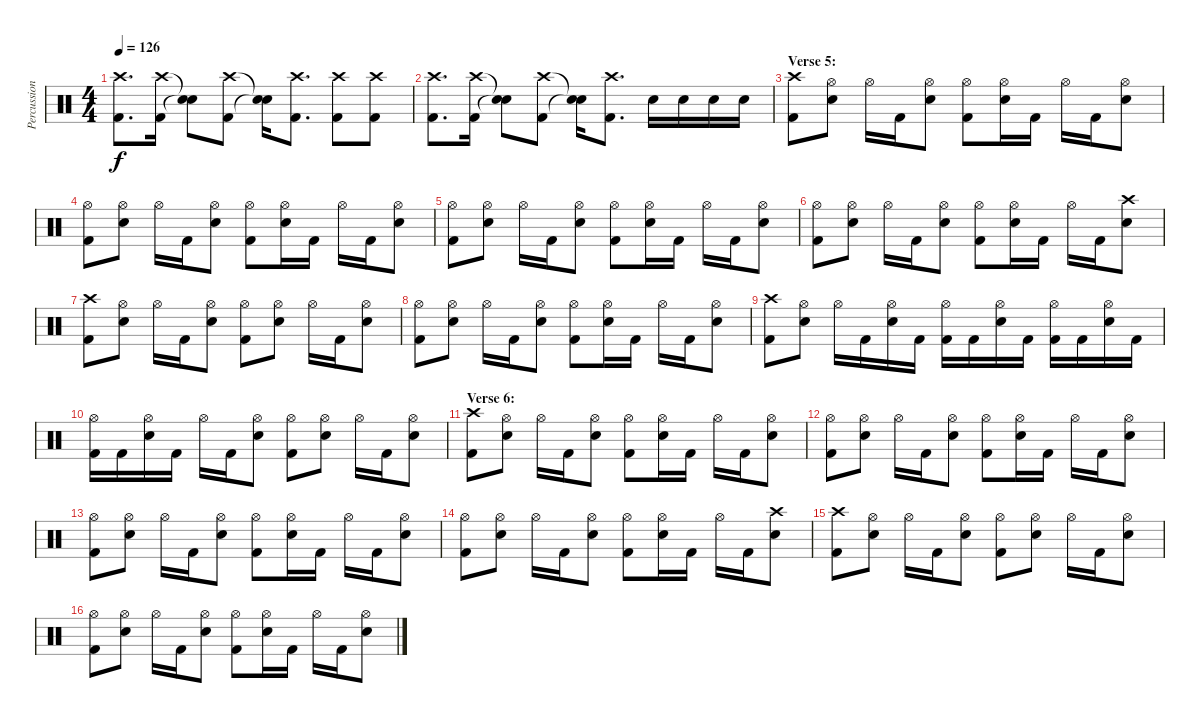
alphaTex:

\track ("Percussion" "Percussion") {instrument percussion}
\staff {score}
\articulation defaults
\ts (4 4)
\tempo 126
\clef neutral
\ks c
("Crash high (hit)" "Kick (hit) 2").8{d dy f} ("Crash high (hit)" "Kick (hit) 2").16 ("Snare (hit)"{t} "Snare (hit)"{t}).8 ("Crash high (hit)" "Kick (hit) 2").8 ("Snare (hit)"{t} "Snare (hit)"{t}).16 ("Crash high (hit)" "Kick (hit) 2").8{d} ("Crash high (hit)" "Kick (hit) 2").8 ("Crash high (hit)" "Kick (hit) 2").8 |
("Crash high (hit)" "Kick (hit) 2").8{d} ("Crash high (hit)" "Kick (hit) 2").16 ("Snare (hit)"{t} "Snare (hit)"{t}).8 ("Crash high (hit)" "Kick (hit) 2").8 ("Snare (hit)"{t} "Snare (hit)"{t}).16 ("Crash high (hit)" "Kick (hit) 2").8{d} "Snare (hit) 2".16 "Snare (hit) 2".16 "Snare (hit) 2".16 "Snare (hit) 2".16 |
\section ("" "Verse 5:")
("Crash high (hit)" "Kick (hit) 2").8 ("Hi-Hat (open)" "Snare (hit) 2").8 "Hi-Hat (open)".16 "Kick (hit) 2".16 ("Hi-Hat (open)" "Snare (hit) 2").8 ("Hi-Hat (open)" "Kick (hit) 2").8 ("Hi-Hat (open)" "Snare (hit) 2").16 "Kick (hit) 2".16 "Hi-Hat (open)".16 "Kick (hit) 2".16 ("Hi-Hat (open)" "Snare (hit) 2").8 |
("Hi-Hat (open)" "Kick (hit) 2").8 ("Hi-Hat (open)" "Snare (hit) 2").8 "Hi-Hat (open)".16 "Kick (hit) 2".16 ("Hi-Hat (open)" "Snare (hit) 2").8 ("Hi-Hat (open)" "Kick (hit) 2").8 ("Hi-Hat (open)" "Snare (hit) 2").16 "Kick (hit) 2".16 "Hi-Hat (open)".16 "Kick (hit) 2".16 ("Hi-Hat (open)" "Snare (hit) 2").8 |
("Hi-Hat (open)" "Kick (hit) 2").8 ("Hi-Hat (open)" "Snare (hit) 2").8 "Hi-Hat (open)".16 "Kick (hit) 2".16 ("Hi-Hat (open)" "Snare (hit) 2").8 ("Hi-Hat (open)" "Kick (hit) 2").8 ("Hi-Hat (open)" "Snare (hit) 2").16 "Kick (hit) 2".16 "Hi-Hat (open)".16 "Kick (hit) 2".16 ("Hi-Hat (open)" "Snare (hit) 2").8 |
("Hi-Hat (open)" "Kick (hit) 2").8 ("Hi-Hat (open)" "Snare (hit) 2").8 "Hi-Hat (open)".16 "Kick (hit) 2".16 ("Hi-Hat (open)" "Snare (hit) 2").8 ("Hi-Hat (open)" "Kick (hit) 2").8 ("Hi-Hat (open)" "Snare (hit) 2").16 "Kick (hit) 2".16 "Hi-Hat (open)".16 "Kick (hit) 2".16 ("Crash high (hit)" "Snare (hit) 2").8 |
("Crash high (hit)" "Kick (hit) 2").8 ("Hi-Hat (open)" "Snare (hit) 2").8 "Hi-Hat (open)".16 "Kick (hit) 2".16 ("Hi-Hat (open)" "Snare (hit) 2").8 ("Hi-Hat (open)" "Kick (hit) 2").8 ("Hi-Hat (open)" "Snare (hit) 2").8 "Hi-Hat (open)".16 "Kick (hit) 2".16 ("Hi-Hat (open)" "Snare (hit) 2").8 |
("Hi-Hat (open)" "Kick (hit) 2").8 ("Hi-Hat (open)" "Snare (hit) 2").8 "Hi-Hat (open)".16 "Kick (hit) 2".16 ("Hi-Hat (open)" "Snare (hit) 2").8 ("Hi-Hat (open)" "Kick (hit) 2").8 ("Hi-Hat (open)" "Snare (hit) 2").16 "Kick (hit) 2".16 "Hi-Hat (open)".16 "Kick (hit) 2".16 ("Hi-Hat (open)" "Snare (hit) 2").8 |
("Crash high (hit)" "Kick (hit) 2").8 ("Hi-Hat (open)" "Snare (hit) 2").8 "Hi-Hat (open)".16 "Kick (hit) 2".16 ("Hi-Hat (open)" "Snare (hit) 2").16 "Kick (hit) 2".16 ("Hi-Hat (open)" "Kick (hit) 2").16 "Kick (hit) 2".16 ("Hi-Hat (open)" "Snare (hit) 2").16 "Kick (hit) 2".16 ("Hi-Hat (open)" "Kick (hit) 2").16 "Kick (hit) 2".16 ("Hi-Hat (open)" "Snare (hit) 2").16 "Kick (hit) 2".16 |
("Hi-Hat (open)" "Kick (hit) 2").16 "Kick (hit) 2".16 ("Hi-Hat (open)" "Snare (hit) 2").16 "Kick (hit) 2".16 "Hi-Hat (open)".16 "Kick (hit) 2".16 ("Hi-Hat (open)" "Snare (hit) 2").8 ("Hi-Hat (open)" "Kick (hit) 2").8 ("Hi-Hat (open)" "Snare (hit) 2").8 "Hi-Hat (open)".16 "Kick (hit) 2".16 ("Hi-Hat (open)" "Snare (hit) 2").8 |
\section ("" "Verse 6:")
("Crash high (hit)" "Kick (hit) 2").8 ("Hi-Hat (open)" "Snare (hit) 2").8 "Hi-Hat (open)".16 "Kick (hit) 2".16 ("Hi-Hat (open)" "Snare (hit) 2").8 ("Hi-Hat (open)" "Kick (hit) 2").8 ("Hi-Hat (open)" "Snare (hit) 2").16 "Kick (hit) 2".16 "Hi-Hat (open)".16 "Kick (hit) 2".16 ("Hi-Hat (open)" "Snare (hit) 2").8 |
("Hi-Hat (open)" "Kick (hit) 2").8 ("Hi-Hat (open)" "Snare (hit) 2").8 "Hi-Hat (open)".16 "Kick (hit) 2".16 ("Hi-Hat (open)" "Snare (hit) 2").8 ("Hi-Hat (open)" "Kick (hit) 2").8 ("Hi-Hat (open)" "Snare (hit) 2").16 "Kick (hit) 2".16 "Hi-Hat (open)".16 "Kick (hit) 2".16 ("Hi-Hat (open)" "Snare (hit) 2").8 |
("Hi-Hat (open)" "Kick (hit) 2").8 ("Hi-Hat (open)" "Snare (hit) 2").8 "Hi-Hat (open)".16 "Kick (hit) 2".16 ("Hi-Hat (open)" "Snare (hit) 2").8 ("Hi-Hat (open)" "Kick (hit) 2").8 ("Hi-Hat (open)" "Snare (hit) 2").16 "Kick (hit) 2".16 "Hi-Hat (open)".16 "Kick (hit) 2".16 ("Hi-Hat (open)" "Snare (hit) 2").8 |
("Hi-Hat (open)" "Kick (hit) 2").8 ("Hi-Hat (open)" "Snare (hit) 2").8 "Hi-Hat (open)".16 "Kick (hit) 2".16 ("Hi-Hat (open)" "Snare (hit) 2").8 ("Hi-Hat (open)" "Kick (hit) 2").8 ("Hi-Hat (open)" "Snare (hit) 2").16 "Kick (hit) 2".16 "Hi-Hat (open)".16 "Kick (hit) 2".16 ("Crash high (hit)" "Snare (hit) 2").8 |
("Crash high (hit)" "Kick (hit) 2").8 ("Hi-Hat (open)" "Snare (hit) 2").8 "Hi-Hat (open)".16 "Kick (hit) 2".16 ("Hi-Hat (open)" "Snare (hit) 2").8 ("Hi-Hat (open)" "Kick (hit) 2").8 ("Hi-Hat (open)" "Snare (hit) 2").8 "Hi-Hat (open)".16 "Kick (hit) 2".16 ("Hi-Hat (open)" "Snare (hit) 2").8 |
("Hi-Hat (open)" "Kick (hit) 2").8 ("Hi-Hat (open)" "Snare (hit) 2").8 "Hi-Hat (open)".16 "Kick (hit) 2".16 ("Hi-Hat (open)" "Snare (hit) 2").8 ("Hi-Hat (open)" "Kick (hit) 2").8 ("Hi-Hat (open)" "Snare (hit) 2").16 "Kick (hit) 2".16 "Hi-Hat (open)".16 "Kick (hit) 2".16 ("Hi-Hat (open)" "Snare (hit) 2").8
